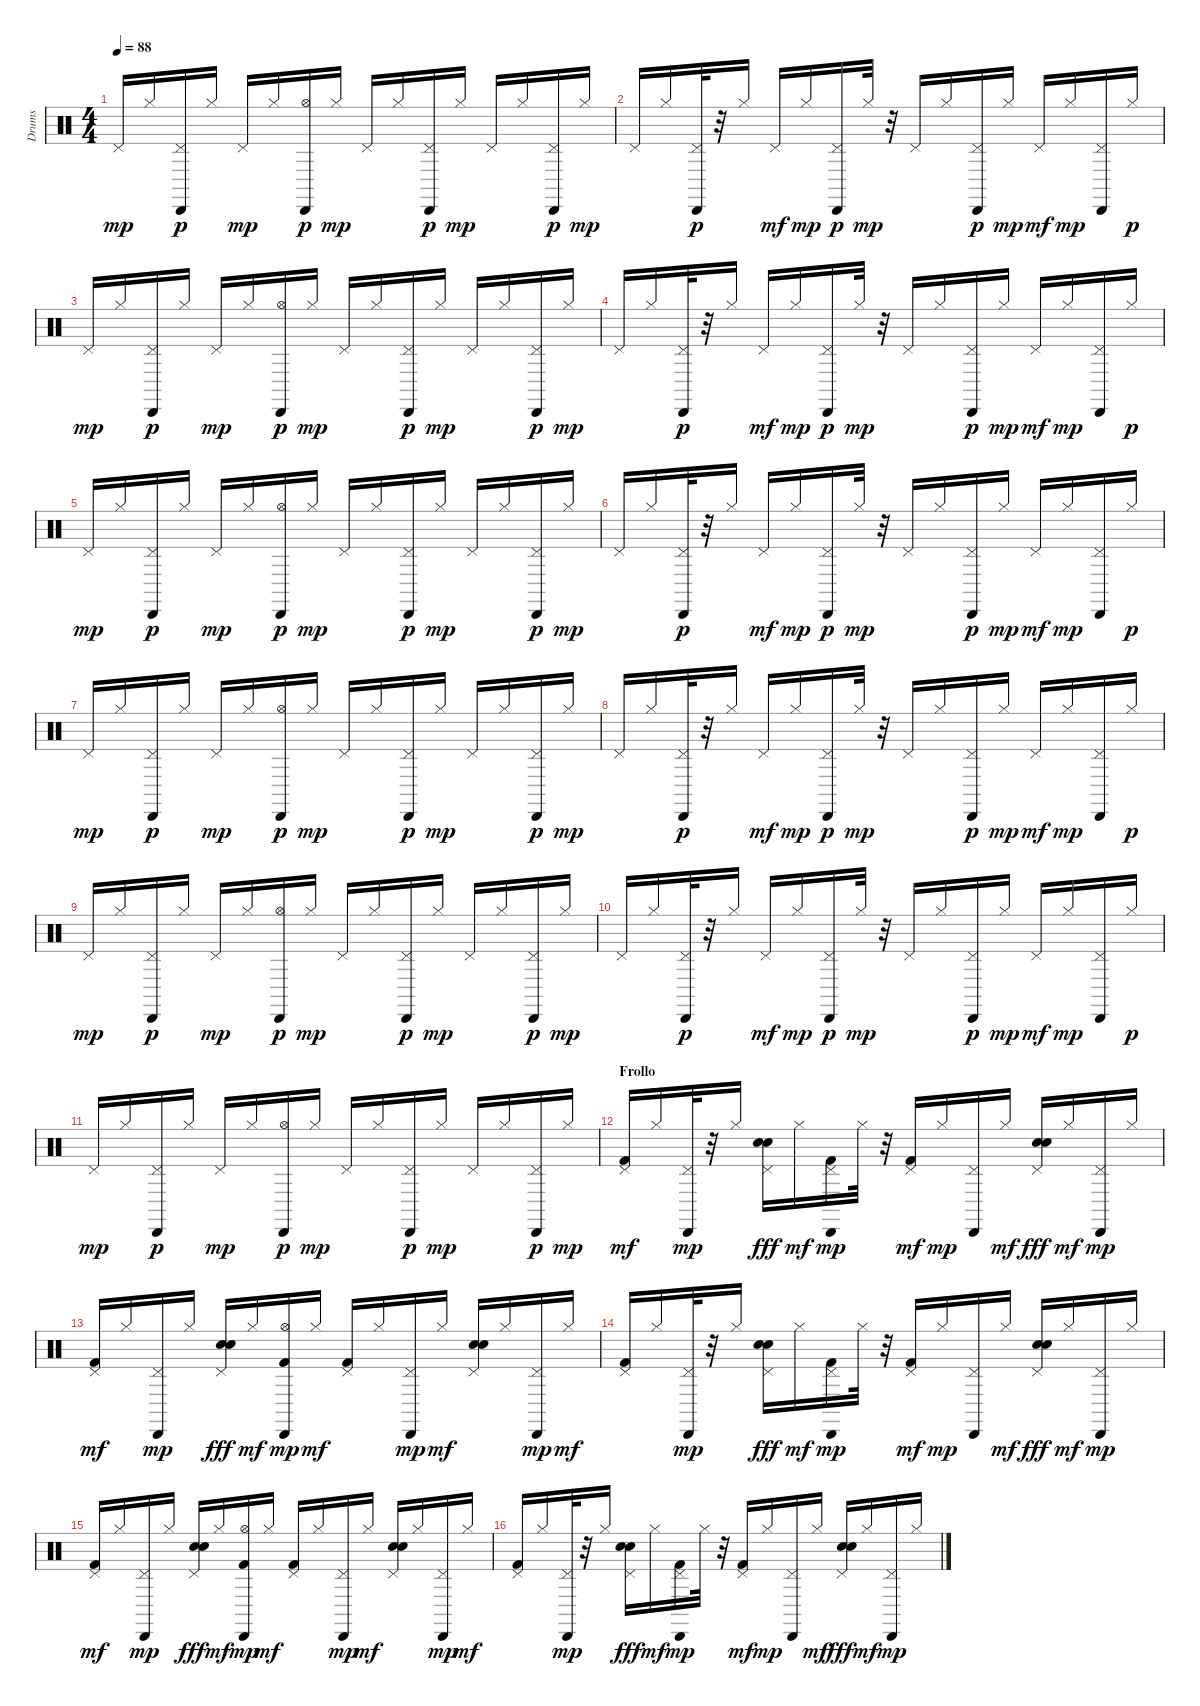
\track ("Drums" "Drums") {instrument percussion}
\staff {score}
\articulation defaults
\ts (4 4)
\tempo 88
\clef neutral
\ks c "Pedal Hi-Hat (hit)".16{dy mp} "Hi-Hat (closed)".16
("Pedal Hi-Hat (hit)" "Cabasa (hit)").16{dy p} "Hi-Hat (closed)".16 "Pedal Hi-Hat (hit)".16{dy mp} "Hi-Hat (closed)".16 ("Hi-Hat (open)" "Cabasa (hit)").16{dy p} "Hi-Hat (closed)".16{dy mp} "Pedal Hi-Hat (hit)".16 "Hi-Hat (closed)".16 ("Pedal Hi-Hat (hit)" "Cabasa (hit)").16{dy p} "Hi-Hat (closed)".16{dy mp} "Pedal Hi-Hat (hit)".16 "Hi-Hat (closed)".16 ("Pedal Hi-Hat (hit)" "Cabasa (hit)").16{dy p} "Hi-Hat (closed)".16{dy mp} |
"Pedal Hi-Hat (hit)".16 "Hi-Hat (closed)".16 ("Pedal Hi-Hat (hit)" "Cabasa (hit)").32{dy p} r.32 "Hi-Hat (closed)".16 "Pedal Hi-Hat (hit)".16{dy mf} "Hi-Hat (closed)".16{dy mp} ("Pedal Hi-Hat (hit)" "Cabasa (hit)").16{dy p} "Hi-Hat (closed)".32{dy mp} r.32 "Pedal Hi-Hat (hit)".16 "Hi-Hat (closed)".16 ("Pedal Hi-Hat (hit)" "Cabasa (hit)").16{dy p} "Hi-Hat (closed)".16{dy mp} "Pedal Hi-Hat (hit)".16{dy mf} "Hi-Hat (closed)".16{dy mp} ("Pedal Hi-Hat (hit)" "Cabasa (hit)").16 "Hi-Hat (closed)".16{dy p} |
"Pedal Hi-Hat (hit)".16{dy mp} "Hi-Hat (closed)".16 ("Pedal Hi-Hat (hit)" "Cabasa (hit)").16{dy p} "Hi-Hat (closed)".16 "Pedal Hi-Hat (hit)".16{dy mp} "Hi-Hat (closed)".16 ("Hi-Hat (open)" "Cabasa (hit)").16{dy p} "Hi-Hat (closed)".16{dy mp} "Pedal Hi-Hat (hit)".16 "Hi-Hat (closed)".16 ("Pedal Hi-Hat (hit)" "Cabasa (hit)").16{dy p} "Hi-Hat (closed)".16{dy mp} "Pedal Hi-Hat (hit)".16 "Hi-Hat (closed)".16 ("Pedal Hi-Hat (hit)" "Cabasa (hit)").16{dy p} "Hi-Hat (closed)".16{dy mp} |
"Pedal Hi-Hat (hit)".16 "Hi-Hat (closed)".16 ("Pedal Hi-Hat (hit)" "Cabasa (hit)").32{dy p} r.32 "Hi-Hat (closed)".16 "Pedal Hi-Hat (hit)".16{dy mf} "Hi-Hat (closed)".16{dy mp} ("Pedal Hi-Hat (hit)" "Cabasa (hit)").16{dy p} "Hi-Hat (closed)".32{dy mp} r.32 "Pedal Hi-Hat (hit)".16 "Hi-Hat (closed)".16 ("Pedal Hi-Hat (hit)" "Cabasa (hit)").16{dy p} "Hi-Hat (closed)".16{dy mp} "Pedal Hi-Hat (hit)".16{dy mf} "Hi-Hat (closed)".16{dy mp} ("Pedal Hi-Hat (hit)" "Cabasa (hit)").16 "Hi-Hat (closed)".16{dy p} |
"Pedal Hi-Hat (hit)".16{dy mp} "Hi-Hat (closed)".16 ("Pedal Hi-Hat (hit)" "Cabasa (hit)").16{dy p} "Hi-Hat (closed)".16 "Pedal Hi-Hat (hit)".16{dy mp} "Hi-Hat (closed)".16 ("Hi-Hat (open)" "Cabasa (hit)").16{dy p} "Hi-Hat (closed)".16{dy mp} "Pedal Hi-Hat (hit)".16 "Hi-Hat (closed)".16 ("Pedal Hi-Hat (hit)" "Cabasa (hit)").16{dy p} "Hi-Hat (closed)".16{dy mp} "Pedal Hi-Hat (hit)".16 "Hi-Hat (closed)".16 ("Pedal Hi-Hat (hit)" "Cabasa (hit)").16{dy p} "Hi-Hat (closed)".16{dy mp} |
"Pedal Hi-Hat (hit)".16 "Hi-Hat (closed)".16 ("Pedal Hi-Hat (hit)" "Cabasa (hit)").32{dy p} r.32 "Hi-Hat (closed)".16 "Pedal Hi-Hat (hit)".16{dy mf} "Hi-Hat (closed)".16{dy mp} ("Pedal Hi-Hat (hit)" "Cabasa (hit)").16{dy p} "Hi-Hat (closed)".32{dy mp} r.32 "Pedal Hi-Hat (hit)".16 "Hi-Hat (closed)".16 ("Pedal Hi-Hat (hit)" "Cabasa (hit)").16{dy p} "Hi-Hat (closed)".16{dy mp} "Pedal Hi-Hat (hit)".16{dy mf} "Hi-Hat (closed)".16{dy mp} ("Pedal Hi-Hat (hit)" "Cabasa (hit)").16 "Hi-Hat (closed)".16{dy p} |
"Pedal Hi-Hat (hit)".16{dy mp} "Hi-Hat (closed)".16 ("Pedal Hi-Hat (hit)" "Cabasa (hit)").16{dy p} "Hi-Hat (closed)".16 "Pedal Hi-Hat (hit)".16{dy mp} "Hi-Hat (closed)".16 ("Hi-Hat (open)" "Cabasa (hit)").16{dy p} "Hi-Hat (closed)".16{dy mp} "Pedal Hi-Hat (hit)".16 "Hi-Hat (closed)".16 ("Pedal Hi-Hat (hit)" "Cabasa (hit)").16{dy p} "Hi-Hat (closed)".16{dy mp} "Pedal Hi-Hat (hit)".16 "Hi-Hat (closed)".16 ("Pedal Hi-Hat (hit)" "Cabasa (hit)").16{dy p} "Hi-Hat (closed)".16{dy mp} |
"Pedal Hi-Hat (hit)".16 "Hi-Hat (closed)".16 ("Pedal Hi-Hat (hit)" "Cabasa (hit)").32{dy p} r.32 "Hi-Hat (closed)".16 "Pedal Hi-Hat (hit)".16{dy mf} "Hi-Hat (closed)".16{dy mp} ("Pedal Hi-Hat (hit)" "Cabasa (hit)").16{dy p} "Hi-Hat (closed)".32{dy mp} r.32 "Pedal Hi-Hat (hit)".16 "Hi-Hat (closed)".16 ("Pedal Hi-Hat (hit)" "Cabasa (hit)").16{dy p} "Hi-Hat (closed)".16{dy mp} "Pedal Hi-Hat (hit)".16{dy mf} "Hi-Hat (closed)".16{dy mp} ("Pedal Hi-Hat (hit)" "Cabasa (hit)").16 "Hi-Hat (closed)".16{dy p} |
"Pedal Hi-Hat (hit)".16{dy mp} "Hi-Hat (closed)".16 ("Pedal Hi-Hat (hit)" "Cabasa (hit)").16{dy p} "Hi-Hat (closed)".16 "Pedal Hi-Hat (hit)".16{dy mp} "Hi-Hat (closed)".16 ("Hi-Hat (open)" "Cabasa (hit)").16{dy p} "Hi-Hat (closed)".16{dy mp} "Pedal Hi-Hat (hit)".16 "Hi-Hat (closed)".16 ("Pedal Hi-Hat (hit)" "Cabasa (hit)").16{dy p} "Hi-Hat (closed)".16{dy mp} "Pedal Hi-Hat (hit)".16 "Hi-Hat (closed)".16 ("Pedal Hi-Hat (hit)" "Cabasa (hit)").16{dy p} "Hi-Hat (closed)".16{dy mp} |
"Pedal Hi-Hat (hit)".16 "Hi-Hat (closed)".16 ("Pedal Hi-Hat (hit)" "Cabasa (hit)").32{dy p} r.32 "Hi-Hat (closed)".16 "Pedal Hi-Hat (hit)".16{dy mf} "Hi-Hat (closed)".16{dy mp} ("Pedal Hi-Hat (hit)" "Cabasa (hit)").16{dy p} "Hi-Hat (closed)".32{dy mp} r.32 "Pedal Hi-Hat (hit)".16 "Hi-Hat (closed)".16 ("Pedal Hi-Hat (hit)" "Cabasa (hit)").16{dy p} "Hi-Hat (closed)".16{dy mp} "Pedal Hi-Hat (hit)".16{dy mf} "Hi-Hat (closed)".16{dy mp} ("Pedal Hi-Hat (hit)" "Cabasa (hit)").16 "Hi-Hat (closed)".16{dy p} |
"Pedal Hi-Hat (hit)".16{dy mp} "Hi-Hat (closed)".16 ("Pedal Hi-Hat (hit)" "Cabasa (hit)").16{dy p} "Hi-Hat (closed)".16 "Pedal Hi-Hat (hit)".16{dy mp} "Hi-Hat (closed)".16 ("Hi-Hat (open)" "Cabasa (hit)").16{dy p} "Hi-Hat (closed)".16{dy mp} "Pedal Hi-Hat (hit)".16 "Hi-Hat (closed)".16 ("Pedal Hi-Hat (hit)" "Cabasa (hit)").16{dy p} "Hi-Hat (closed)".16{dy mp} "Pedal Hi-Hat (hit)".16 "Hi-Hat (closed)".16 ("Pedal Hi-Hat (hit)" "Cabasa (hit)").16{dy p} "Hi-Hat (closed)".16{dy mp} |
\section ("" "Frollo")
("Pedal Hi-Hat (hit)" "Kick (hit) 2").16{dy mf} "Hi-Hat (closed)".16 ("Pedal Hi-Hat (hit)" "Cabasa (hit)").32{dy mp} r.32 "Hi-Hat (closed)".16 ("Pedal Hi-Hat (hit)" "Snare (hit) 2" "Electric Snare (hit)").16{dy fff} "Hi-Hat (closed)".16{dy mf} ("Pedal Hi-Hat (hit)" "Cabasa (hit)" "Kick (hit) 2").16{dy mp} "Hi-Hat (closed)".32 r.32 ("Pedal Hi-Hat (hit)" "Kick (hit) 2").16{dy mf} "Hi-Hat (closed)".16{dy mp} ("Pedal Hi-Hat (hit)" "Cabasa (hit)").16 "Hi-Hat (closed)".16{dy mf} ("Pedal Hi-Hat (hit)" "Snare (hit) 2" "Electric Snare (hit)").16{dy fff} "Hi-Hat (closed)".16{dy mf} ("Pedal Hi-Hat (hit)" "Cabasa (hit)").16{dy mp} "Hi-Hat (closed)".16 |
("Pedal Hi-Hat (hit)" "Kick (hit) 2").16{dy mf} "Hi-Hat (closed)".16 ("Pedal Hi-Hat (hit)" "Cabasa (hit)").16{dy mp} "Hi-Hat (closed)".16 ("Pedal Hi-Hat (hit)" "Snare (hit) 2" "Electric Snare (hit)").16{dy fff} "Hi-Hat (closed)".16{dy mf} ("Hi-Hat (open)" "Cabasa (hit)" "Kick (hit) 2").16{dy mp} "Hi-Hat (closed)".16{dy mf} ("Kick (hit) 2" "Pedal Hi-Hat (hit)").16 "Hi-Hat (closed)".16 ("Pedal Hi-Hat (hit)" "Cabasa (hit)").16{dy mp} "Hi-Hat (closed)".16{dy mf} ("Snare (hit) 2" "Electric Snare (hit)" "Pedal Hi-Hat (hit)").16 "Hi-Hat (closed)".16 ("Pedal Hi-Hat (hit)" "Cabasa (hit)").16{dy mp} "Hi-Hat (closed)".16{dy mf} |
("Pedal Hi-Hat (hit)" "Kick (hit) 2").16 "Hi-Hat (closed)".16 ("Pedal Hi-Hat (hit)" "Cabasa (hit)").32{dy mp} r.32 "Hi-Hat (closed)".16 ("Pedal Hi-Hat (hit)" "Snare (hit) 2" "Electric Snare (hit)").16{dy fff} "Hi-Hat (closed)".16{dy mf} ("Pedal Hi-Hat (hit)" "Cabasa (hit)" "Kick (hit) 2").16{dy mp} "Hi-Hat (closed)".32 r.32 ("Pedal Hi-Hat (hit)" "Kick (hit) 2").16{dy mf} "Hi-Hat (closed)".16{dy mp} ("Pedal Hi-Hat (hit)" "Cabasa (hit)").16 "Hi-Hat (closed)".16{dy mf} ("Pedal Hi-Hat (hit)" "Snare (hit) 2" "Electric Snare (hit)").16{dy fff} "Hi-Hat (closed)".16{dy mf} ("Pedal Hi-Hat (hit)" "Cabasa (hit)").16{dy mp} "Hi-Hat (closed)".16 |
("Pedal Hi-Hat (hit)" "Kick (hit) 2").16{dy mf} "Hi-Hat (closed)".16 ("Pedal Hi-Hat (hit)" "Cabasa (hit)").16{dy mp} "Hi-Hat (closed)".16 ("Pedal Hi-Hat (hit)" "Snare (hit) 2" "Electric Snare (hit)").16{dy fff} "Hi-Hat (closed)".16{dy mf} ("Hi-Hat (open)" "Cabasa (hit)" "Kick (hit) 2").16{dy mp} "Hi-Hat (closed)".16{dy mf} ("Kick (hit) 2" "Pedal Hi-Hat (hit)").16 "Hi-Hat (closed)".16 ("Pedal Hi-Hat (hit)" "Cabasa (hit)").16{dy mp} "Hi-Hat (closed)".16{dy mf} ("Snare (hit) 2" "Electric Snare (hit)" "Pedal Hi-Hat (hit)").16 "Hi-Hat (closed)".16 ("Pedal Hi-Hat (hit)" "Cabasa (hit)").16{dy mp} "Hi-Hat (closed)".16{dy mf} |
("Pedal Hi-Hat (hit)" "Kick (hit) 2").16 "Hi-Hat (closed)".16 ("Pedal Hi-Hat (hit)" "Cabasa (hit)").32{dy mp} r.32 "Hi-Hat (closed)".16 ("Pedal Hi-Hat (hit)" "Snare (hit) 2" "Electric Snare (hit)").16{dy fff} "Hi-Hat (closed)".16{dy mf} ("Pedal Hi-Hat (hit)" "Cabasa (hit)" "Kick (hit) 2").16{dy mp} "Hi-Hat (closed)".32 r.32 ("Pedal Hi-Hat (hit)" "Kick (hit) 2").16{dy mf} "Hi-Hat (closed)".16{dy mp} ("Pedal Hi-Hat (hit)" "Cabasa (hit)").16 "Hi-Hat (closed)".16{dy mf} ("Pedal Hi-Hat (hit)" "Snare (hit) 2" "Electric Snare (hit)").16{dy fff} "Hi-Hat (closed)".16{dy mf} ("Pedal Hi-Hat (hit)" "Cabasa (hit)").16{dy mp} "Hi-Hat (closed)".16
